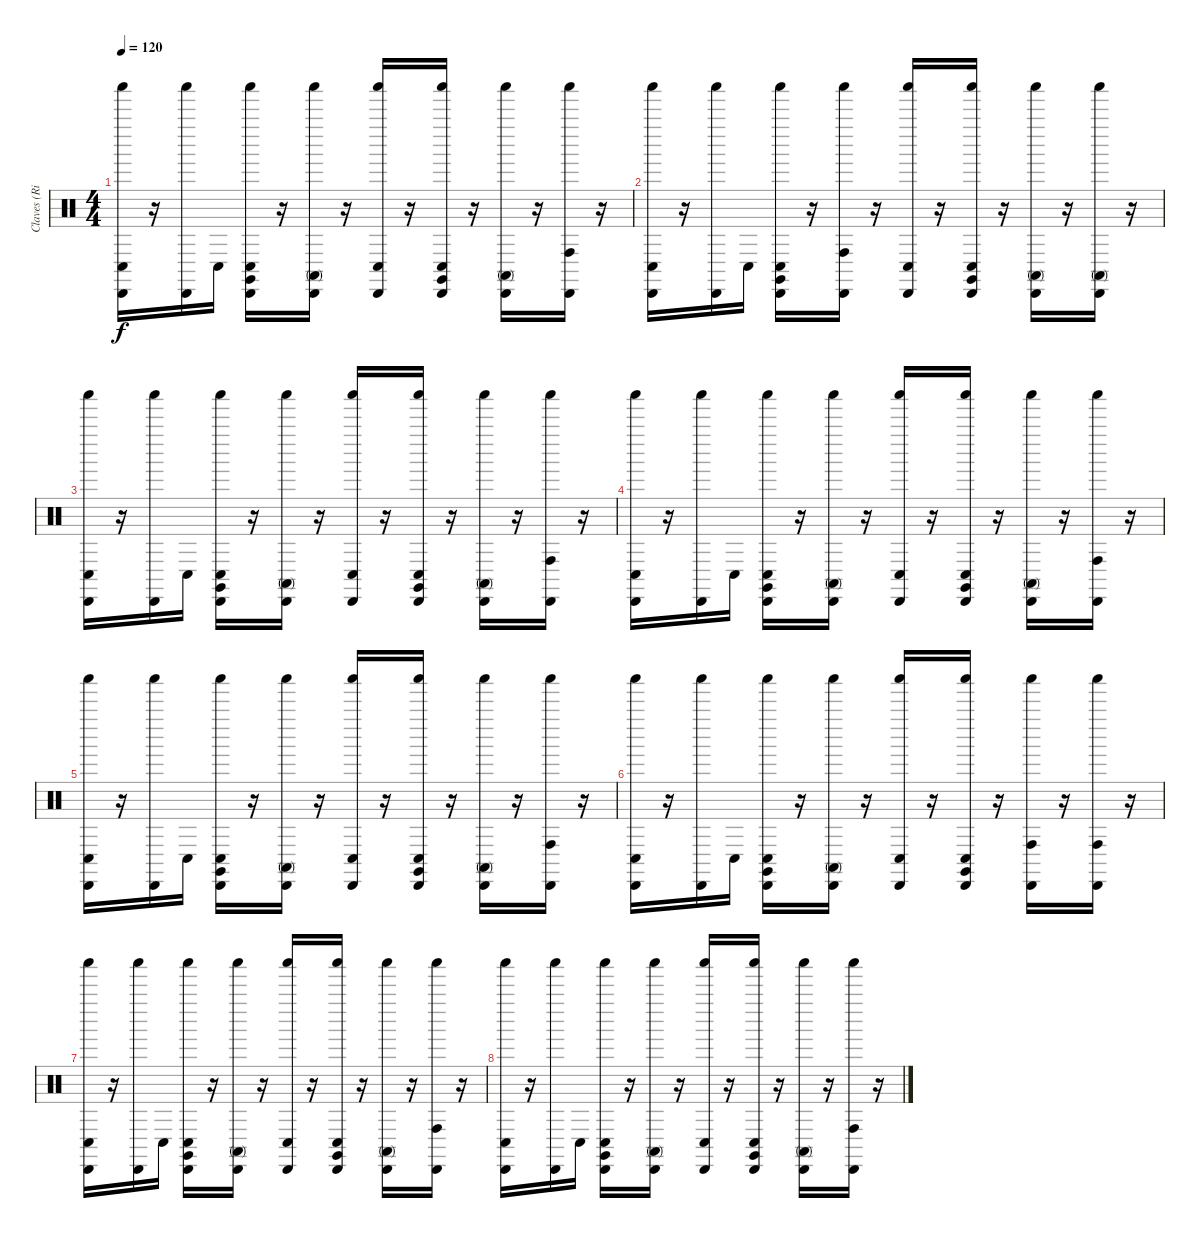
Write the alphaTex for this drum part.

\track ("Claves (Ringo)" "Claves (Ri") {instrument percussion}
\staff {score}
\articulation defaults
\ts (4 4)
\tempo 120
\clef neutral
\ks c
("Conga low (hit)" "Shaker (hit)" "Cabasa (hit)").16{dy f} r.16 ("Cabasa (hit)" "Shaker (hit)").16 "Conga low (hit)".16 ("Conga low (hit)" "Cabasa (hit)" "Claves (hit)" "Shaker (hit)").16 r.16 ("Conga high (mute)" "Shaker (hit)" "Cabasa (hit)").16 r.16 ("Shaker (hit)" "Conga low (hit)" "Cabasa (hit)").16 r.16 ("Cabasa (hit)" "Claves (hit)" "Conga low (hit)" "Shaker (hit)").16 r.16 ("Conga high (mute)" "Shaker (hit)" "Cabasa (hit)").16 r.16 ("Shaker (hit)" "Cabasa (hit)" "Conga high (hit)").16 r.16 |
("Conga low (hit)" "Cabasa (hit)" "Shaker (hit)").16 r.16 ("Cabasa (hit)" "Shaker (hit)").16 "Conga low (hit)".16 ("Claves (hit)" "Shaker (hit)" "Cabasa (hit)" "Conga low (hit)").16 r.16 ("Conga high (hit)" "Cabasa (hit)" "Shaker (hit)").16 r.16 ("Cabasa (hit)" "Conga low (hit)" "Shaker (hit)").16 r.16 ("Shaker (hit)" "Conga low (hit)" "Claves (hit)" "Cabasa (hit)").16 r.16 ("Shaker (hit)" "Cabasa (hit)" "Conga high (mute)").16 r.16 ("Conga high (mute)" "Cabasa (hit)" "Shaker (hit)").16 r.16 |
("Conga low (hit)" "Shaker (hit)" "Cabasa (hit)").16 r.16 ("Shaker (hit)" "Cabasa (hit)").16 "Conga low (hit)".16 ("Cabasa (hit)" "Claves (hit)" "Conga low (hit)" "Shaker (hit)").16 r.16 ("Shaker (hit)" "Conga high (mute)" "Cabasa (hit)").16 r.16 ("Conga low (hit)" "Shaker (hit)" "Cabasa (hit)").16 r.16 ("Claves (hit)" "Cabasa (hit)" "Conga low (hit)" "Shaker (hit)").16 r.16 ("Conga high (mute)" "Cabasa (hit)" "Shaker (hit)").16 r.16 ("Cabasa (hit)" "Conga high (hit)" "Shaker (hit)").16 r.16 |
("Shaker (hit)" "Conga low (hit)" "Cabasa (hit)").16 r.16 ("Cabasa (hit)" "Shaker (hit)").16 "Conga low (hit)".16 ("Cabasa (hit)" "Conga low (hit)" "Shaker (hit)" "Claves (hit)").16 r.16 ("Shaker (hit)" "Conga high (mute)" "Cabasa (hit)").16 r.16 ("Shaker (hit)" "Conga low (hit)" "Cabasa (hit)").16 r.16 ("Conga low (hit)" "Cabasa (hit)" "Claves (hit)" "Shaker (hit)").16 r.16 ("Conga high (mute)" "Cabasa (hit)" "Shaker (hit)").16 r.16 ("Cabasa (hit)" "Shaker (hit)" "Conga high (hit)").16 r.16 |
("Shaker (hit)" "Cabasa (hit)" "Conga low (hit)").16 r.16 ("Shaker (hit)" "Cabasa (hit)").16 "Conga low (hit)".16 ("Cabasa (hit)" "Conga low (hit)" "Shaker (hit)" "Claves (hit)").16 r.16 ("Shaker (hit)" "Conga high (mute)" "Cabasa (hit)").16 r.16 ("Cabasa (hit)" "Conga low (hit)" "Shaker (hit)").16 r.16 ("Conga low (hit)" "Claves (hit)" "Shaker (hit)" "Cabasa (hit)").16 r.16 ("Shaker (hit)" "Cabasa (hit)" "Conga high (mute)").16 r.16 ("Shaker (hit)" "Cabasa (hit)" "Conga high (hit)").16 r.16 |
("Conga low (hit)" "Cabasa (hit)" "Shaker (hit)").16 r.16 ("Shaker (hit)" "Cabasa (hit)").16 "Conga low (hit)".16 ("Shaker (hit)" "Conga low (hit)" "Cabasa (hit)" "Claves (hit)").16 r.16 ("Cabasa (hit)" "Conga high (mute)" "Shaker (hit)").16 r.16 ("Shaker (hit)" "Cabasa (hit)" "Conga low (hit)").16 r.16 ("Claves (hit)" "Cabasa (hit)" "Conga low (hit)" "Shaker (hit)").16 r.16 ("Cabasa (hit)" "Conga high (hit)" "Shaker (hit)").16 r.16 ("Cabasa (hit)" "Shaker (hit)" "Conga high (hit)").16 r.16 |
("Shaker (hit)" "Conga low (hit)" "Cabasa (hit)").16 r.16 ("Cabasa (hit)" "Shaker (hit)").16 "Conga low (hit)".16 ("Cabasa (hit)" "Conga low (hit)" "Shaker (hit)" "Claves (hit)").16 r.16 ("Cabasa (hit)" "Shaker (hit)" "Conga high (mute)").16 r.16 ("Cabasa (hit)" "Shaker (hit)" "Conga low (hit)").16 r.16 ("Conga low (hit)" "Claves (hit)" "Shaker (hit)" "Cabasa (hit)").16 r.16 ("Cabasa (hit)" "Conga high (mute)" "Shaker (hit)").16 r.16 ("Shaker (hit)" "Conga high (hit)" "Cabasa (hit)").16 r.16 |
("Conga low (hit)" "Cabasa (hit)" "Shaker (hit)").16 r.16 ("Shaker (hit)" "Cabasa (hit)").16 "Conga low (hit)".16 ("Shaker (hit)" "Cabasa (hit)" "Claves (hit)" "Conga low (hit)").16 r.16 ("Conga high (mute)" "Cabasa (hit)" "Shaker (hit)").16 r.16 ("Conga low (hit)" "Shaker (hit)" "Cabasa (hit)").16 r.16 ("Conga low (hit)" "Cabasa (hit)" "Shaker (hit)" "Claves (hit)").16 r.16 ("Shaker (hit)" "Cabasa (hit)" "Conga high (mute)").16 r.16 ("Shaker (hit)" "Cabasa (hit)" "Conga high (hit)").16 r.16
